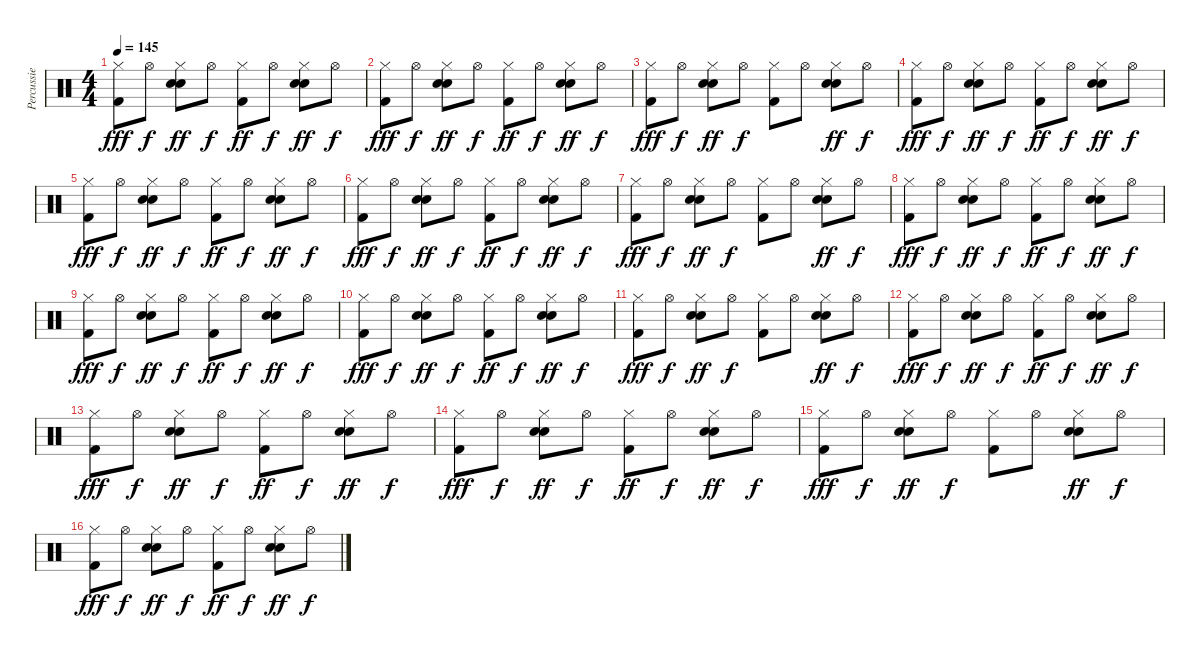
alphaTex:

\track ("Percussie" "Percussie") {instrument percussion}
\staff {score}
\articulation defaults
\ts (4 4)
\tempo 145
\clef neutral
\ks c
("Kick (hit) 2" "Hi-Hat (closed)").8{dy fff} "Hi-Hat (open)".8{dy f} ("Electric Snare (hit)" "Hi-Hat (closed)" "Hand Clap (hit)").8{dy ff} "Hi-Hat (open)".8{dy f} ("Kick (hit) 2" "Hi-Hat (closed)").8{dy ff} "Hi-Hat (open)".8{dy f} ("Electric Snare (hit)" "Hi-Hat (closed)" "Hand Clap (hit)").8{dy ff} "Hi-Hat (open)".8{dy f} |
("Kick (hit) 2" "Hi-Hat (closed)").8{dy fff} "Hi-Hat (open)".8{dy f} ("Electric Snare (hit)" "Hi-Hat (closed)" "Hand Clap (hit)").8{dy ff} "Hi-Hat (open)".8{dy f} ("Kick (hit) 2" "Hi-Hat (closed)").8{dy ff} "Hi-Hat (open)".8{dy f} ("Electric Snare (hit)" "Hi-Hat (closed)" "Hand Clap (hit)").8{dy ff} "Hi-Hat (open)".8{dy f} |
("Kick (hit) 2" "Hi-Hat (closed)").8{dy fff} "Hi-Hat (open)".8{dy f} ("Electric Snare (hit)" "Hi-Hat (closed)" "Hand Clap (hit)").8{dy ff} "Hi-Hat (open)".8{dy f} ("Kick (hit) 2" "Hi-Hat (closed)").8 "Hi-Hat (open)".8 ("Electric Snare (hit)" "Hi-Hat (closed)" "Hand Clap (hit)").8{dy ff} "Hi-Hat (open)".8{dy f} |
("Kick (hit) 2" "Hi-Hat (closed)").8{dy fff} "Hi-Hat (open)".8{dy f} ("Electric Snare (hit)" "Hi-Hat (closed)" "Hand Clap (hit)").8{dy ff} "Hi-Hat (open)".8{dy f} ("Kick (hit) 2" "Hi-Hat (closed)").8{dy ff} "Hi-Hat (open)".8{dy f} ("Electric Snare (hit)" "Hi-Hat (closed)" "Hand Clap (hit)").8{dy ff} "Hi-Hat (open)".8{dy f} |
("Kick (hit) 2" "Hi-Hat (closed)").8{dy fff} "Hi-Hat (open)".8{dy f} ("Electric Snare (hit)" "Hi-Hat (closed)" "Hand Clap (hit)").8{dy ff} "Hi-Hat (open)".8{dy f} ("Kick (hit) 2" "Hi-Hat (closed)").8{dy ff} "Hi-Hat (open)".8{dy f} ("Electric Snare (hit)" "Hi-Hat (closed)" "Hand Clap (hit)").8{dy ff} "Hi-Hat (open)".8{dy f} |
("Kick (hit) 2" "Hi-Hat (closed)").8{dy fff} "Hi-Hat (open)".8{dy f} ("Electric Snare (hit)" "Hi-Hat (closed)" "Hand Clap (hit)").8{dy ff} "Hi-Hat (open)".8{dy f} ("Kick (hit) 2" "Hi-Hat (closed)").8{dy ff} "Hi-Hat (open)".8{dy f} ("Electric Snare (hit)" "Hi-Hat (closed)" "Hand Clap (hit)").8{dy ff} "Hi-Hat (open)".8{dy f} |
("Kick (hit) 2" "Hi-Hat (closed)").8{dy fff} "Hi-Hat (open)".8{dy f} ("Electric Snare (hit)" "Hi-Hat (closed)" "Hand Clap (hit)").8{dy ff} "Hi-Hat (open)".8{dy f} ("Kick (hit) 2" "Hi-Hat (closed)").8 "Hi-Hat (open)".8 ("Electric Snare (hit)" "Hi-Hat (closed)" "Hand Clap (hit)").8{dy ff} "Hi-Hat (open)".8{dy f} |
("Kick (hit) 2" "Hi-Hat (closed)").8{dy fff} "Hi-Hat (open)".8{dy f} ("Electric Snare (hit)" "Hi-Hat (closed)" "Hand Clap (hit)").8{dy ff} "Hi-Hat (open)".8{dy f} ("Kick (hit) 2" "Hi-Hat (closed)").8{dy ff} "Hi-Hat (open)".8{dy f} ("Electric Snare (hit)" "Hi-Hat (closed)" "Hand Clap (hit)").8{dy ff} "Hi-Hat (open)".8{dy f} |
("Kick (hit) 2" "Hi-Hat (closed)").8{dy fff} "Hi-Hat (open)".8{dy f} ("Electric Snare (hit)" "Hi-Hat (closed)" "Hand Clap (hit)").8{dy ff} "Hi-Hat (open)".8{dy f} ("Kick (hit) 2" "Hi-Hat (closed)").8{dy ff} "Hi-Hat (open)".8{dy f} ("Electric Snare (hit)" "Hi-Hat (closed)" "Hand Clap (hit)").8{dy ff} "Hi-Hat (open)".8{dy f} |
("Kick (hit) 2" "Hi-Hat (closed)").8{dy fff} "Hi-Hat (open)".8{dy f} ("Electric Snare (hit)" "Hi-Hat (closed)" "Hand Clap (hit)").8{dy ff} "Hi-Hat (open)".8{dy f} ("Kick (hit) 2" "Hi-Hat (closed)").8{dy ff} "Hi-Hat (open)".8{dy f} ("Electric Snare (hit)" "Hi-Hat (closed)" "Hand Clap (hit)").8{dy ff} "Hi-Hat (open)".8{dy f} |
("Kick (hit) 2" "Hi-Hat (closed)").8{dy fff} "Hi-Hat (open)".8{dy f} ("Electric Snare (hit)" "Hi-Hat (closed)" "Hand Clap (hit)").8{dy ff} "Hi-Hat (open)".8{dy f} ("Kick (hit) 2" "Hi-Hat (closed)").8 "Hi-Hat (open)".8 ("Electric Snare (hit)" "Hi-Hat (closed)" "Hand Clap (hit)").8{dy ff} "Hi-Hat (open)".8{dy f} |
("Kick (hit) 2" "Hi-Hat (closed)").8{dy fff} "Hi-Hat (open)".8{dy f} ("Electric Snare (hit)" "Hi-Hat (closed)" "Hand Clap (hit)").8{dy ff} "Hi-Hat (open)".8{dy f} ("Kick (hit) 2" "Hi-Hat (closed)").8{dy ff} "Hi-Hat (open)".8{dy f} ("Electric Snare (hit)" "Hi-Hat (closed)" "Hand Clap (hit)").8{dy ff} "Hi-Hat (open)".8{dy f} |
("Kick (hit) 2" "Hi-Hat (closed)").8{dy fff} "Hi-Hat (open)".8{dy f} ("Electric Snare (hit)" "Hi-Hat (closed)" "Hand Clap (hit)").8{dy ff} "Hi-Hat (open)".8{dy f} ("Kick (hit) 2" "Hi-Hat (closed)").8{dy ff} "Hi-Hat (open)".8{dy f} ("Electric Snare (hit)" "Hi-Hat (closed)" "Hand Clap (hit)").8{dy ff} "Hi-Hat (open)".8{dy f} |
("Kick (hit) 2" "Hi-Hat (closed)").8{dy fff} "Hi-Hat (open)".8{dy f} ("Electric Snare (hit)" "Hi-Hat (closed)" "Hand Clap (hit)").8{dy ff} "Hi-Hat (open)".8{dy f} ("Kick (hit) 2" "Hi-Hat (closed)").8{dy ff} "Hi-Hat (open)".8{dy f} ("Electric Snare (hit)" "Hi-Hat (closed)" "Hand Clap (hit)").8{dy ff} "Hi-Hat (open)".8{dy f} |
("Kick (hit) 2" "Hi-Hat (closed)").8{dy fff} "Hi-Hat (open)".8{dy f} ("Electric Snare (hit)" "Hi-Hat (closed)" "Hand Clap (hit)").8{dy ff} "Hi-Hat (open)".8{dy f} ("Kick (hit) 2" "Hi-Hat (closed)").8 "Hi-Hat (open)".8 ("Electric Snare (hit)" "Hi-Hat (closed)" "Hand Clap (hit)").8{dy ff} "Hi-Hat (open)".8{dy f} |
("Kick (hit) 2" "Hi-Hat (closed)").8{dy fff} "Hi-Hat (open)".8{dy f} ("Electric Snare (hit)" "Hi-Hat (closed)" "Hand Clap (hit)").8{dy ff} "Hi-Hat (open)".8{dy f} ("Kick (hit) 2" "Hi-Hat (closed)").8{dy ff} "Hi-Hat (open)".8{dy f} ("Electric Snare (hit)" "Hi-Hat (closed)" "Hand Clap (hit)").8{dy ff} "Hi-Hat (open)".8{dy f}
